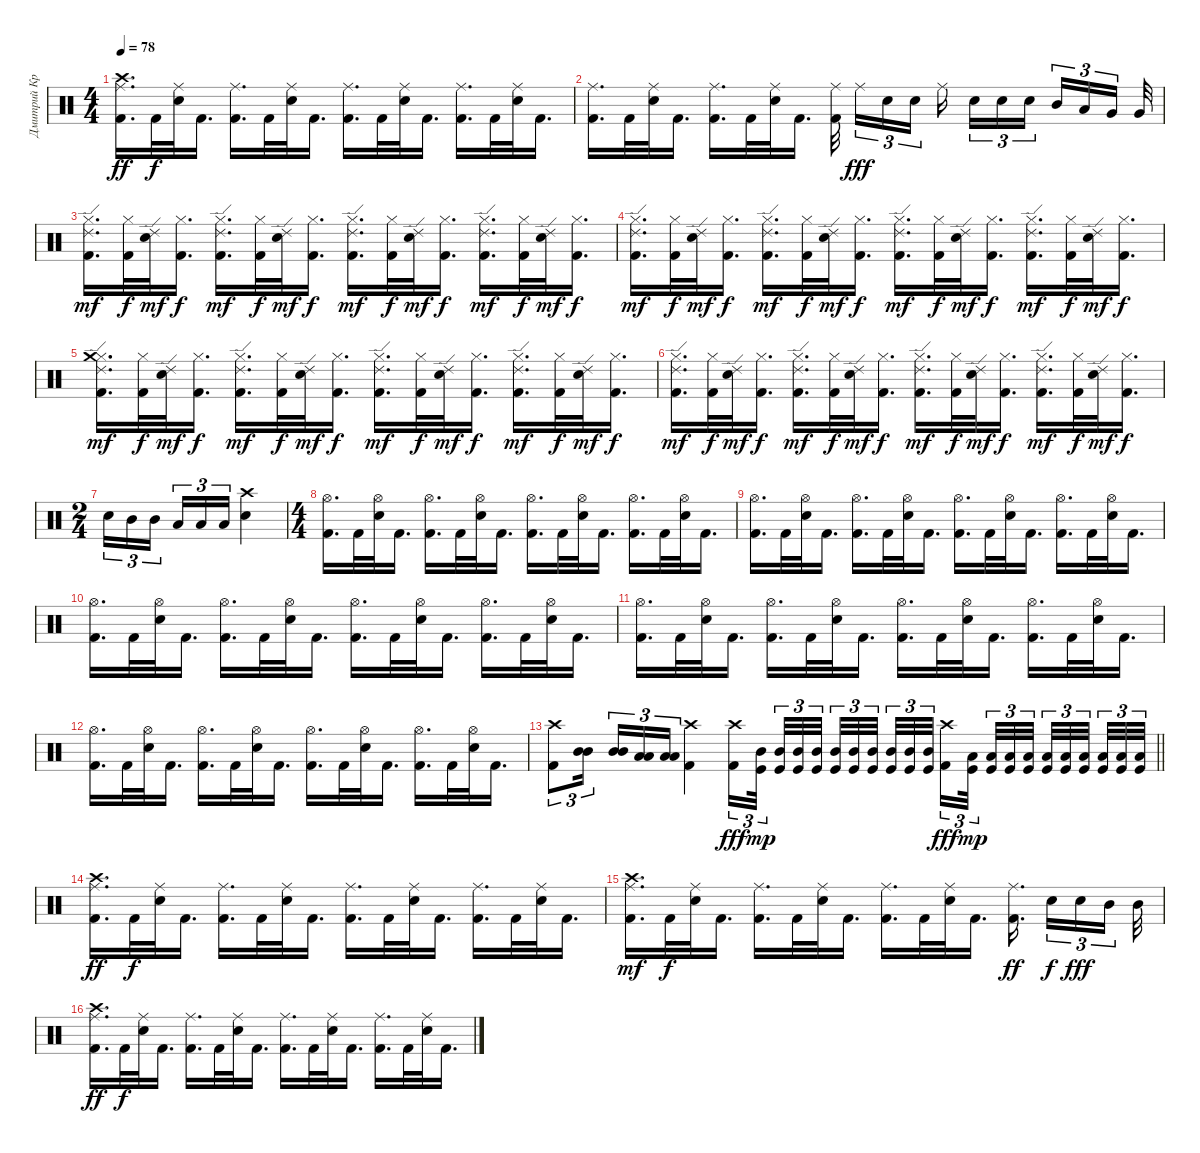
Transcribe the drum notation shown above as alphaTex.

\track ("Дмитрий Кривенков" "Дмитрий Кр") {instrument percussion}
\staff {score}
\articulation defaults
\ts (4 4)
\tempo 78
\clef neutral
\ks c
("Ride (middle)" "Crash high (hit)" "Kick (hit) 2").16{d dy ff} "Kick (hit) 2".32{dy f} ("Ride (middle)" "Electric Snare (hit)").32 "Kick (hit) 2".16{d} ("Ride (middle)" "Kick (hit) 2").16{d} "Kick (hit) 2".32 ("Ride (middle)" "Electric Snare (hit)").32 "Kick (hit) 2".16{d} ("Ride (middle)" "Kick (hit) 2").16{d} "Kick (hit) 2".32 ("Ride (middle)" "Electric Snare (hit)").32 "Kick (hit) 2".16{d} ("Ride (middle)" "Kick (hit) 2").16{d} "Kick (hit) 2".32 ("Ride (middle)" "Electric Snare (hit)").32 "Kick (hit) 2".16{d} |
("Ride (middle)" "Kick (hit) 2").16{d} "Kick (hit) 2".32 ("Ride (middle)" "Electric Snare (hit)").32 "Kick (hit) 2".16{d} ("Ride (middle)" "Kick (hit) 2").16{d} "Kick (hit) 2".32 ("Ride (middle)" "Electric Snare (hit)").32 "Kick (hit) 2".16{d} ("Ride (middle)" "Kick (hit) 2").32{beam splitsecondary} "Ride (middle)".16{tu (3 2) dy fff} "Electric Snare (hit)".16{tu (3 2)} "Electric Snare (hit)".16{tu (3 2) beam splitsecondary} "Ride (middle)".16 "Electric Snare (hit)".16{tu (3 2)} "Electric Snare (hit)".16{tu (3 2)} "Electric Snare (hit)".16{tu (3 2) beam splitsecondary} "Mid Tom (hit)".16{tu (3 2)} "Low Tom (hit)".16{tu (3 2)} "Very Low Tom (hit)".16{tu (3 2) beam splitsecondary} "Very Low Tom (hit)".32 |
("Hi-Hat (closed)" "Ride (edge) 2" "Kick (hit) 2").16{d dy mf} ("Hi-Hat (closed)" "Kick (hit) 2").32{dy f} ("Ride (edge) 2" "Electric Snare (hit)").32{dy mf} ("Hi-Hat (closed)" "Kick (hit) 2").16{d dy f} ("Hi-Hat (closed)" "Ride (edge) 2" "Kick (hit) 2").16{d dy mf} ("Hi-Hat (closed)" "Kick (hit) 2").32{dy f} ("Ride (edge) 2" "Electric Snare (hit)").32{dy mf} ("Hi-Hat (closed)" "Kick (hit) 2").16{d dy f} ("Hi-Hat (closed)" "Ride (edge) 2" "Kick (hit) 2").16{d dy mf} ("Hi-Hat (closed)" "Kick (hit) 2").32{dy f} ("Ride (edge) 2" "Electric Snare (hit)").32{dy mf} ("Hi-Hat (closed)" "Kick (hit) 2").16{d dy f} ("Hi-Hat (closed)" "Ride (edge) 2" "Kick (hit) 2").16{d dy mf} ("Hi-Hat (closed)" "Kick (hit) 2").32{dy f} ("Ride (edge) 2" "Electric Snare (hit)").32{dy mf} ("Hi-Hat (closed)" "Kick (hit) 2").16{d dy f} |
("Hi-Hat (closed)" "Ride (edge) 2" "Kick (hit) 2").16{d dy mf} ("Hi-Hat (closed)" "Kick (hit) 2").32{dy f} ("Ride (edge) 2" "Electric Snare (hit)").32{dy mf} ("Hi-Hat (closed)" "Kick (hit) 2").16{d dy f} ("Hi-Hat (closed)" "Ride (edge) 2" "Kick (hit) 2").16{d dy mf} ("Hi-Hat (closed)" "Kick (hit) 2").32{dy f} ("Ride (edge) 2" "Electric Snare (hit)").32{dy mf} ("Hi-Hat (closed)" "Kick (hit) 2").16{d dy f} ("Hi-Hat (closed)" "Ride (edge) 2" "Kick (hit) 2").16{d dy mf} ("Hi-Hat (closed)" "Kick (hit) 2").32{dy f} ("Ride (edge) 2" "Electric Snare (hit)").32{dy mf} ("Hi-Hat (closed)" "Kick (hit) 2").16{d dy f} ("Hi-Hat (closed)" "Ride (edge) 2" "Kick (hit) 2").16{d dy mf} ("Hi-Hat (closed)" "Kick (hit) 2").32{dy f} ("Ride (edge) 2" "Electric Snare (hit)").32{dy mf} ("Hi-Hat (closed)" "Kick (hit) 2").16{d dy f} |
("Hi-Hat (closed)" "Ride (edge) 2" "Crash medium (hit)" "Kick (hit) 2").16{d dy mf} ("Hi-Hat (closed)" "Kick (hit) 2").32{dy f} ("Ride (edge) 2" "Electric Snare (hit)").32{dy mf} ("Hi-Hat (closed)" "Kick (hit) 2").16{d dy f} ("Hi-Hat (closed)" "Ride (edge) 2" "Kick (hit) 2").16{d dy mf} ("Hi-Hat (closed)" "Kick (hit) 2").32{dy f} ("Ride (edge) 2" "Electric Snare (hit)").32{dy mf} ("Hi-Hat (closed)" "Kick (hit) 2").16{d dy f} ("Hi-Hat (closed)" "Ride (edge) 2" "Kick (hit) 2").16{d dy mf} ("Hi-Hat (closed)" "Kick (hit) 2").32{dy f} ("Ride (edge) 2" "Electric Snare (hit)").32{dy mf} ("Hi-Hat (closed)" "Kick (hit) 2").16{d dy f} ("Hi-Hat (closed)" "Ride (edge) 2" "Kick (hit) 2").16{d dy mf} ("Hi-Hat (closed)" "Kick (hit) 2").32{dy f} ("Ride (edge) 2" "Electric Snare (hit)").32{dy mf} ("Hi-Hat (closed)" "Kick (hit) 2").16{d dy f} |
("Hi-Hat (closed)" "Ride (edge) 2" "Kick (hit) 2").16{d dy mf} ("Hi-Hat (closed)" "Kick (hit) 2").32{dy f} ("Ride (edge) 2" "Electric Snare (hit)").32{dy mf} ("Hi-Hat (closed)" "Kick (hit) 2").16{d dy f} ("Hi-Hat (closed)" "Ride (edge) 2" "Kick (hit) 2").16{d dy mf} ("Hi-Hat (closed)" "Kick (hit) 2").32{dy f} ("Ride (edge) 2" "Electric Snare (hit)").32{dy mf} ("Hi-Hat (closed)" "Kick (hit) 2").16{d dy f} ("Hi-Hat (closed)" "Ride (edge) 2" "Kick (hit) 2").16{d dy mf} ("Hi-Hat (closed)" "Kick (hit) 2").32{dy f} ("Ride (edge) 2" "Electric Snare (hit)").32{dy mf} ("Hi-Hat (closed)" "Kick (hit) 2").16{d dy f} ("Hi-Hat (closed)" "Ride (edge) 2" "Kick (hit) 2").16{d dy mf} ("Hi-Hat (closed)" "Kick (hit) 2").32{dy f} ("Ride (edge) 2" "Electric Snare (hit)").32{dy mf} ("Hi-Hat (closed)" "Kick (hit) 2").16{d dy f} |
\ts (2 4)
"Electric Snare (hit)".16{tu (3 2)} "Mid Tom (hit)".16{tu (3 2)} "Mid Tom (hit)".16{tu (3 2) beam splitsecondary} "Low Tom (hit)".16{tu (3 2)} "Low Tom (hit)".16{tu (3 2)} "Low Tom (hit)".16{tu (3 2)} ("Crash high (hit)" "Electric Snare (hit)").4 |
\ts (4 4)
("Hi-Hat (open)" "Kick (hit) 2").16{d} "Kick (hit) 2".32 ("Hi-Hat (open)" "Electric Snare (hit)").32 "Kick (hit) 2".16{d} ("Hi-Hat (open)" "Kick (hit) 2").16{d} "Kick (hit) 2".32 ("Hi-Hat (open)" "Electric Snare (hit)").32 "Kick (hit) 2".16{d} ("Hi-Hat (open)" "Kick (hit) 2").16{d} "Kick (hit) 2".32 ("Hi-Hat (open)" "Electric Snare (hit)").32 "Kick (hit) 2".16{d} ("Hi-Hat (open)" "Kick (hit) 2").16{d} "Kick (hit) 2".32 ("Hi-Hat (open)" "Electric Snare (hit)").32 "Kick (hit) 2".16{d} |
("Hi-Hat (open)" "Kick (hit) 2").16{d} "Kick (hit) 2".32 ("Hi-Hat (open)" "Electric Snare (hit)").32 "Kick (hit) 2".16{d} ("Hi-Hat (open)" "Kick (hit) 2").16{d} "Kick (hit) 2".32 ("Hi-Hat (open)" "Electric Snare (hit)").32 "Kick (hit) 2".16{d} ("Hi-Hat (open)" "Kick (hit) 2").16{d} "Kick (hit) 2".32 ("Hi-Hat (open)" "Electric Snare (hit)").32 "Kick (hit) 2".16{d} ("Hi-Hat (open)" "Kick (hit) 2").16{d} "Kick (hit) 2".32 ("Hi-Hat (open)" "Electric Snare (hit)").32 "Kick (hit) 2".16{d} |
("Hi-Hat (open)" "Kick (hit) 2").16{d} "Kick (hit) 2".32 ("Hi-Hat (open)" "Electric Snare (hit)").32 "Kick (hit) 2".16{d} ("Hi-Hat (open)" "Kick (hit) 2").16{d} "Kick (hit) 2".32 ("Hi-Hat (open)" "Electric Snare (hit)").32 "Kick (hit) 2".16{d} ("Hi-Hat (open)" "Kick (hit) 2").16{d} "Kick (hit) 2".32 ("Hi-Hat (open)" "Electric Snare (hit)").32 "Kick (hit) 2".16{d} ("Hi-Hat (open)" "Kick (hit) 2").16{d} "Kick (hit) 2".32 ("Hi-Hat (open)" "Electric Snare (hit)").32 "Kick (hit) 2".16{d} |
("Hi-Hat (open)" "Kick (hit) 2").16{d} "Kick (hit) 2".32 ("Hi-Hat (open)" "Electric Snare (hit)").32 "Kick (hit) 2".16{d} ("Hi-Hat (open)" "Kick (hit) 2").16{d} "Kick (hit) 2".32 ("Hi-Hat (open)" "Electric Snare (hit)").32 "Kick (hit) 2".16{d} ("Hi-Hat (open)" "Kick (hit) 2").16{d} "Kick (hit) 2".32 ("Hi-Hat (open)" "Electric Snare (hit)").32 "Kick (hit) 2".16{d} ("Hi-Hat (open)" "Kick (hit) 2").16{d} "Kick (hit) 2".32 ("Hi-Hat (open)" "Electric Snare (hit)").32 "Kick (hit) 2".16{d} |
("Hi-Hat (open)" "Kick (hit) 2").16{d} "Kick (hit) 2".32 ("Hi-Hat (open)" "Electric Snare (hit)").32 "Kick (hit) 2".16{d} ("Hi-Hat (open)" "Kick (hit) 2").16{d} "Kick (hit) 2".32 ("Hi-Hat (open)" "Electric Snare (hit)").32 "Kick (hit) 2".16{d} ("Hi-Hat (open)" "Kick (hit) 2").16{d} "Kick (hit) 2".32 ("Hi-Hat (open)" "Electric Snare (hit)").32 "Kick (hit) 2".16{d} ("Hi-Hat (open)" "Kick (hit) 2").16{d} "Kick (hit) 2".32 ("Hi-Hat (open)" "Electric Snare (hit)").32 "Kick (hit) 2".16{d} |
\barLineRight lightlight
("Crash high (hit)" "Kick (hit) 2").8{tu (3 2)} ("Mid Tom (hit)" "Mid Tom (hit)").16{tu (3 2) beam splitsecondary} ("Mid Tom (hit)" "Mid Tom (hit)").16{tu (3 2)} ("Low Tom (hit)" "Low Tom (hit)").16{tu (3 2)} ("Low Tom (hit)" "Low Tom (hit)").16{tu (3 2)} ("Crash high (hit)" "Kick (hit) 2").4 ("Crash high (hit)" "Kick (hit) 2").16{tu (3 2) dy fff volume 16} ("Mid Tom (hit)" "Kick (hit)").32{tu (3 2) dy mp beam splitsecondary} ("Mid Tom (hit)" "Kick (hit)").32{tu (3 2)} ("Mid Tom (hit)" "Kick (hit)").32{tu (3 2)} ("Mid Tom (hit)" "Kick (hit)").32{tu (3 2) beam splitsecondary} ("Mid Tom (hit)" "Kick (hit)").32{tu (3 2)} ("Mid Tom (hit)" "Kick (hit)").32{tu (3 2)} ("Mid Tom (hit)" "Kick (hit)").32{tu (3 2) beam splitsecondary} ("Mid Tom (hit)" "Kick (hit)").32{tu (3 2)} ("Mid Tom (hit)" "Kick (hit)").32{tu (3 2)} ("Mid Tom (hit)" "Kick (hit)").32{tu (3 2)} ("Crash high (hit)" "Kick (hit) 2").16{tu (3 2) dy fff} ("Low Tom (hit)" "Kick (hit)").32{tu (3 2) dy mp beam splitsecondary} ("Low Tom (hit)" "Kick (hit)").32{tu (3 2)} ("Low Tom (hit)" "Kick (hit)").32{tu (3 2)} ("Low Tom (hit)" "Kick (hit)").32{tu (3 2) beam splitsecondary} ("Low Tom (hit)" "Kick (hit)").32{tu (3 2)} ("Low Tom (hit)" "Kick (hit)").32{tu (3 2)} ("Low Tom (hit)" "Kick (hit)").32{tu (3 2) beam splitsecondary} ("Low Tom (hit)" "Kick (hit)").32{tu (3 2)} ("Low Tom (hit)" "Kick (hit)").32{tu (3 2)} ("Low Tom (hit)" "Kick (hit)").32{tu (3 2)} |
("Ride (middle)" "Crash high (hit)" "Kick (hit) 2").16{d dy ff volume 13} "Kick (hit) 2".32{dy f} ("Ride (middle)" "Electric Snare (hit)").32 "Kick (hit) 2".16{d} ("Ride (middle)" "Kick (hit) 2").16{d} "Kick (hit) 2".32 ("Ride (middle)" "Electric Snare (hit)").32 "Kick (hit) 2".16{d} ("Ride (middle)" "Kick (hit) 2").16{d} "Kick (hit) 2".32 ("Ride (middle)" "Electric Snare (hit)").32 "Kick (hit) 2".16{d} ("Ride (middle)" "Kick (hit) 2").16{d} "Kick (hit) 2".32 ("Ride (middle)" "Electric Snare (hit)").32 "Kick (hit) 2".16{d} |
("Ride (middle)" "Crash high (hit)" "Kick (hit) 2").16{d dy mf} "Kick (hit) 2".32{dy f} ("Ride (middle)" "Electric Snare (hit)").32 "Kick (hit) 2".16{d} ("Ride (middle)" "Kick (hit) 2").16{d} "Kick (hit) 2".32 ("Ride (middle)" "Electric Snare (hit)").32 "Kick (hit) 2".16{d} ("Ride (middle)" "Kick (hit) 2").16{d} "Kick (hit) 2".32 ("Ride (middle)" "Electric Snare (hit)").32 "Kick (hit) 2".16{d} ("Ride (middle)" "Kick (hit) 2").16{d dy ff beam splitsecondary} "Electric Snare (hit)".16{tu (3 2) dy f} "Electric Snare (hit)".16{tu (3 2) dy fff} "Mid Tom (hit)".16{tu (3 2) beam splitsecondary} "Mid Tom (hit)".32 |
("Ride (middle)" "Crash high (hit)" "Kick (hit) 2").16{d dy ff} "Kick (hit) 2".32{dy f} ("Ride (middle)" "Electric Snare (hit)").32 "Kick (hit) 2".16{d} ("Ride (middle)" "Kick (hit) 2").16{d} "Kick (hit) 2".32 ("Ride (middle)" "Electric Snare (hit)").32 "Kick (hit) 2".16{d} ("Ride (middle)" "Kick (hit) 2").16{d} "Kick (hit) 2".32 ("Ride (middle)" "Electric Snare (hit)").32 "Kick (hit) 2".16{d} ("Ride (middle)" "Kick (hit) 2").16{d} "Kick (hit) 2".32 ("Ride (middle)" "Electric Snare (hit)").32 "Kick (hit) 2".16{d}
